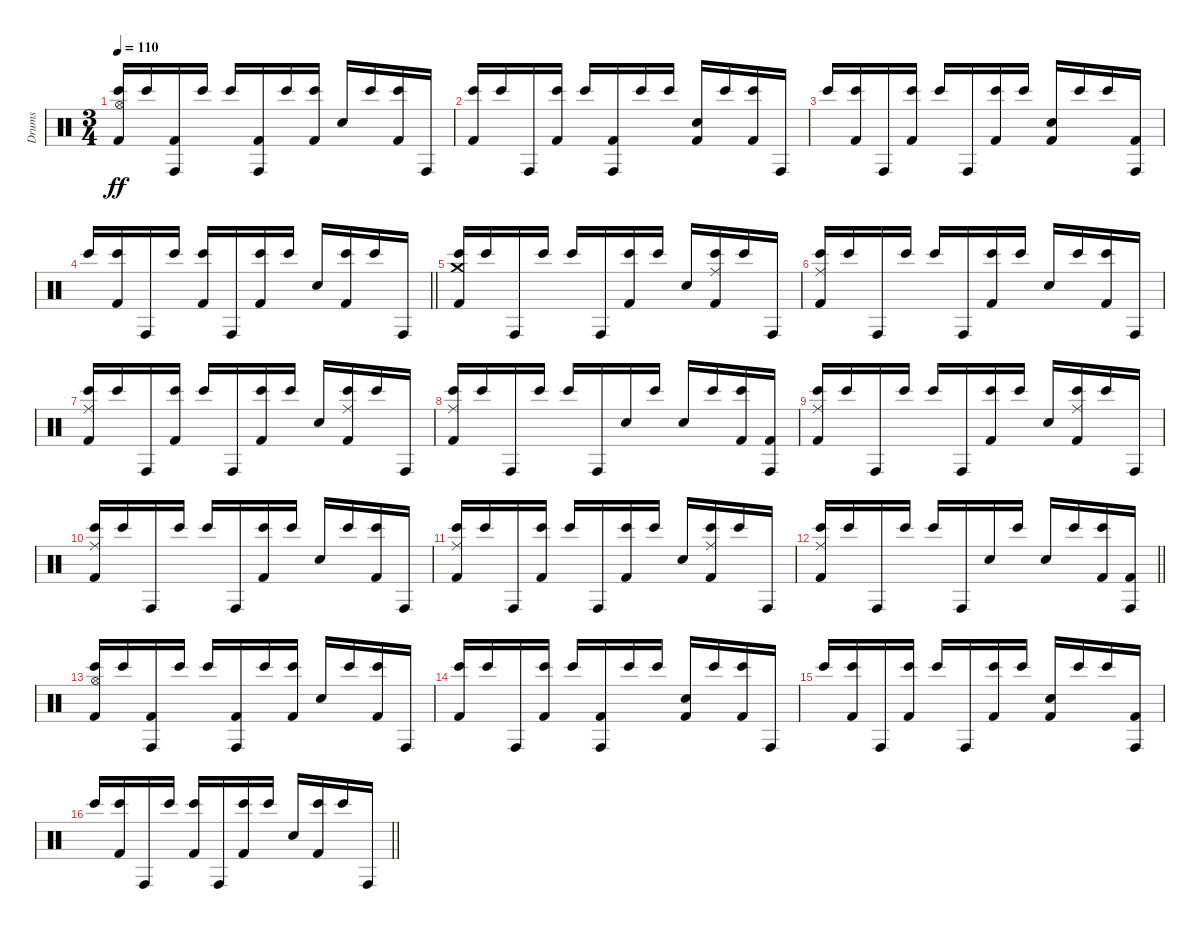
\track ("Drums" "Drums") {instrument percussion}
\staff {score}
\articulation defaults
\ts (3 4)
\section ("" "")
\tempo 110
\clef neutral
\ks c
("Hi-Hat (open)" "Bongo High (hit)" "Kick (hit) 2").16{dy ff} "Bongo High (hit)".16 ("Conga high (hit)" "Kick (hit) 2").16 "Bongo High (hit)".16 "Bongo High (hit)".16 ("Conga high (hit)" "Kick (hit) 2").16 "Bongo High (hit)".16 ("Bongo High (hit)" "Kick (hit) 2").16 "Snare (hit) 2".16 "Bongo High (hit)".16 ("Bongo High (hit)" "Kick (hit) 2").16 "Conga high (hit)".16 |
("Bongo High (hit)" "Kick (hit) 2").16 "Bongo High (hit)".16 "Conga high (hit)".16 ("Bongo High (hit)" "Kick (hit) 2").16 "Bongo High (hit)".16 ("Conga high (hit)" "Kick (hit) 2").16 "Bongo High (hit)".16 "Bongo High (hit)".16 ("Snare (hit) 2" "Kick (hit) 2").16 "Bongo High (hit)".16 ("Bongo High (hit)" "Kick (hit) 2").16 "Conga high (hit)".16 |
"Bongo High (hit)".16 ("Bongo High (hit)" "Kick (hit) 2").16 "Conga high (hit)".16 ("Bongo High (hit)" "Kick (hit) 2").16 "Bongo High (hit)".16 "Conga high (hit)".16 ("Bongo High (hit)" "Kick (hit) 2").16 "Bongo High (hit)".16 ("Snare (hit) 2" "Kick (hit) 2").16 "Bongo High (hit)".16 "Bongo High (hit)".16 ("Conga high (hit)" "Kick (hit) 2").16 |
\barLineRight lightlight "Bongo High (hit)".16
("Bongo High (hit)" "Kick (hit) 2").16 "Conga high (hit)".16 "Bongo High (hit)".16 ("Bongo High (hit)" "Kick (hit) 2").16 "Conga high (hit)".16 ("Bongo High (hit)" "Kick (hit) 2").16 "Bongo High (hit)".16 "Snare (hit) 2".16 ("Bongo High (hit)" "Kick (hit) 2").16 "Bongo High (hit)".16 "Conga high (hit)".16 |
\section ("" "")
("Crash medium (hit)" "Bongo High (hit)" "Kick (hit) 2").16 "Bongo High (hit)".16 "Conga high (hit)".16 "Bongo High (hit)".16 "Bongo High (hit)".16 "Conga high (hit)".16 ("Bongo High (hit)" "Kick (hit) 2").16 "Bongo High (hit)".16 "Snare (hit) 2".16 ("Ride (middle)" "Bongo High (hit)" "Kick (hit) 2").16 "Bongo High (hit)".16 "Conga high (hit)".16 |
("Ride (middle)" "Bongo High (hit)" "Kick (hit) 2").16 "Bongo High (hit)".16 "Conga high (hit)".16 "Bongo High (hit)".16 "Bongo High (hit)".16 "Conga high (hit)".16 ("Bongo High (hit)" "Kick (hit) 2").16 "Bongo High (hit)".16 "Snare (hit) 2".16 "Bongo High (hit)".16 ("Bongo High (hit)" "Kick (hit) 2").16 "Conga high (hit)".16 |
("Ride (middle)" "Bongo High (hit)" "Kick (hit) 2").16 "Bongo High (hit)".16 "Conga high (hit)".16 ("Bongo High (hit)" "Kick (hit) 2").16 "Bongo High (hit)".16 "Conga high (hit)".16 ("Bongo High (hit)" "Kick (hit) 2").16 "Bongo High (hit)".16 "Snare (hit) 2".16 ("Ride (middle)" "Bongo High (hit)" "Kick (hit) 2").16 "Bongo High (hit)".16 "Conga high (hit)".16 |
("Ride (middle)" "Bongo High (hit)" "Kick (hit) 2").16 "Bongo High (hit)".16 "Conga high (hit)".16 "Bongo High (hit)".16 "Bongo High (hit)".16 "Conga high (hit)".16 "Snare (hit) 2".16 "Bongo High (hit)".16 "Snare (hit) 2".16 "Bongo High (hit)".16 ("Bongo High (hit)" "Kick (hit) 2").16 ("Conga high (hit)" "Kick (hit) 2").16 |
("Ride (middle)" "Bongo High (hit)" "Kick (hit) 2").16 "Bongo High (hit)".16 "Conga high (hit)".16 "Bongo High (hit)".16 "Bongo High (hit)".16 "Conga high (hit)".16 ("Bongo High (hit)" "Kick (hit) 2").16 "Bongo High (hit)".16 "Snare (hit) 2".16 ("Ride (middle)" "Bongo High (hit)" "Kick (hit) 2").16 "Bongo High (hit)".16 "Conga high (hit)".16 |
("Ride (middle)" "Bongo High (hit)" "Kick (hit) 2").16 "Bongo High (hit)".16 "Conga high (hit)".16 "Bongo High (hit)".16 "Bongo High (hit)".16 "Conga high (hit)".16 ("Bongo High (hit)" "Kick (hit) 2").16 "Bongo High (hit)".16 "Snare (hit) 2".16 "Bongo High (hit)".16 ("Bongo High (hit)" "Kick (hit) 2").16 "Conga high (hit)".16 |
("Ride (middle)" "Bongo High (hit)" "Kick (hit) 2").16 "Bongo High (hit)".16 "Conga high (hit)".16 ("Bongo High (hit)" "Kick (hit) 2").16 "Bongo High (hit)".16 "Conga high (hit)".16 ("Bongo High (hit)" "Kick (hit) 2").16 "Bongo High (hit)".16 "Snare (hit) 2".16 ("Ride (middle)" "Bongo High (hit)" "Kick (hit) 2").16 "Bongo High (hit)".16 "Conga high (hit)".16 |
\barLineRight lightlight
("Ride (middle)" "Bongo High (hit)" "Kick (hit) 2").16 "Bongo High (hit)".16 "Conga high (hit)".16 "Bongo High (hit)".16 "Bongo High (hit)".16 "Conga high (hit)".16 "Snare (hit) 2".16 "Bongo High (hit)".16 "Snare (hit) 2".16 "Bongo High (hit)".16 ("Bongo High (hit)" "Kick (hit) 2").16 ("Conga high (hit)" "Kick (hit) 2").16 |
\section ("" "")
("Hi-Hat (open)" "Bongo High (hit)" "Kick (hit) 2").16 "Bongo High (hit)".16 ("Conga high (hit)" "Kick (hit) 2").16 "Bongo High (hit)".16 "Bongo High (hit)".16 ("Conga high (hit)" "Kick (hit) 2").16 "Bongo High (hit)".16 ("Bongo High (hit)" "Kick (hit) 2").16 "Snare (hit) 2".16 "Bongo High (hit)".16 ("Bongo High (hit)" "Kick (hit) 2").16 "Conga high (hit)".16 |
("Bongo High (hit)" "Kick (hit) 2").16 "Bongo High (hit)".16 "Conga high (hit)".16 ("Bongo High (hit)" "Kick (hit) 2").16 "Bongo High (hit)".16 ("Conga high (hit)" "Kick (hit) 2").16 "Bongo High (hit)".16 "Bongo High (hit)".16 ("Snare (hit) 2" "Kick (hit) 2").16 "Bongo High (hit)".16 ("Bongo High (hit)" "Kick (hit) 2").16 "Conga high (hit)".16 |
"Bongo High (hit)".16 ("Bongo High (hit)" "Kick (hit) 2").16 "Conga high (hit)".16 ("Bongo High (hit)" "Kick (hit) 2").16 "Bongo High (hit)".16 "Conga high (hit)".16 ("Bongo High (hit)" "Kick (hit) 2").16 "Bongo High (hit)".16 ("Snare (hit) 2" "Kick (hit) 2").16 "Bongo High (hit)".16 "Bongo High (hit)".16 ("Conga high (hit)" "Kick (hit) 2").16 |
\barLineRight lightlight "Bongo High (hit)".16
("Bongo High (hit)" "Kick (hit) 2").16 "Conga high (hit)".16 "Bongo High (hit)".16 ("Bongo High (hit)" "Kick (hit) 2").16 "Conga high (hit)".16 ("Bongo High (hit)" "Kick (hit) 2").16 "Bongo High (hit)".16 "Snare (hit) 2".16 ("Bongo High (hit)" "Kick (hit) 2").16 "Bongo High (hit)".16 "Conga high (hit)".16
